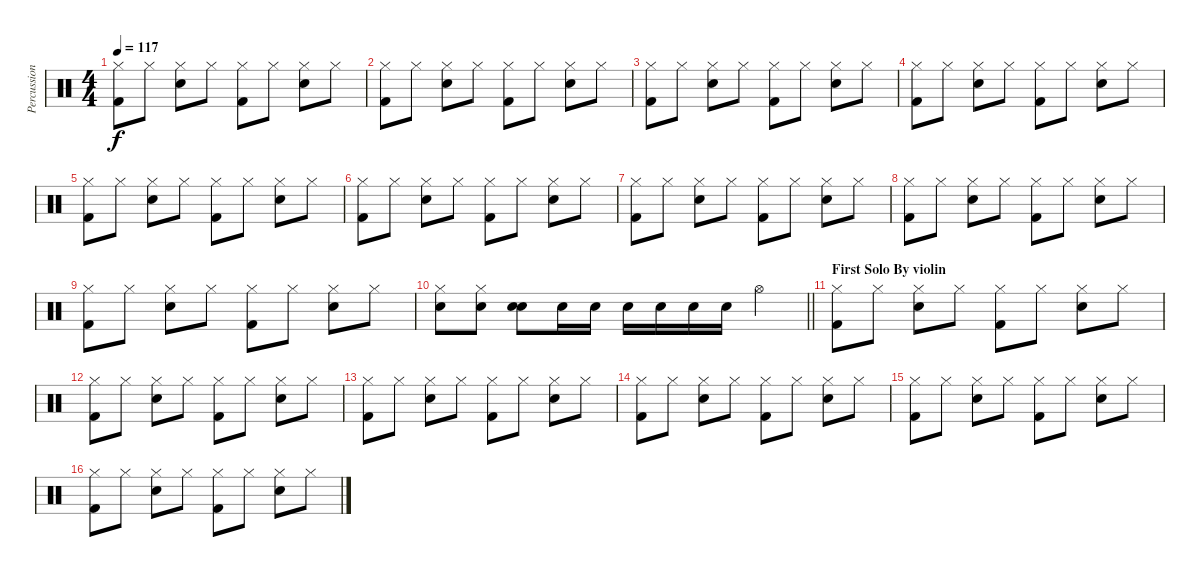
\track ("Percussion" "Percussion") {instrument percussion}
\staff {score}
\articulation defaults
\ts (4 4)
\tempo 117
\clef neutral
\ks c
("Kick (hit) 2" "Hi-Hat (closed)").8{dy f} "Hi-Hat (closed)".8 ("Hi-Hat (closed)" "Snare (hit) 2").8 "Hi-Hat (closed)".8 ("Kick (hit) 2" "Hi-Hat (closed)").8 "Hi-Hat (closed)".8 ("Hi-Hat (closed)" "Snare (hit) 2").8 "Hi-Hat (closed)".8 |
("Kick (hit) 2" "Hi-Hat (closed)").8 "Hi-Hat (closed)".8 ("Hi-Hat (closed)" "Snare (hit) 2").8 "Hi-Hat (closed)".8 ("Kick (hit) 2" "Hi-Hat (closed)").8 "Hi-Hat (closed)".8 ("Hi-Hat (closed)" "Snare (hit) 2").8 "Hi-Hat (closed)".8 |
("Kick (hit) 2" "Hi-Hat (closed)").8 "Hi-Hat (closed)".8 ("Hi-Hat (closed)" "Snare (hit) 2").8 "Hi-Hat (closed)".8 ("Kick (hit) 2" "Hi-Hat (closed)").8 "Hi-Hat (closed)".8 ("Hi-Hat (closed)" "Snare (hit) 2").8 "Hi-Hat (closed)".8 |
("Kick (hit) 2" "Hi-Hat (closed)").8 "Hi-Hat (closed)".8 ("Hi-Hat (closed)" "Snare (hit) 2").8 "Hi-Hat (closed)".8 ("Kick (hit) 2" "Hi-Hat (closed)").8 "Hi-Hat (closed)".8 ("Hi-Hat (closed)" "Snare (hit) 2").8 "Hi-Hat (closed)".8 |
("Kick (hit) 2" "Hi-Hat (closed)").8 "Hi-Hat (closed)".8 ("Hi-Hat (closed)" "Snare (hit) 2").8 "Hi-Hat (closed)".8 ("Kick (hit) 2" "Hi-Hat (closed)").8 "Hi-Hat (closed)".8 ("Hi-Hat (closed)" "Snare (hit) 2").8 "Hi-Hat (closed)".8 |
("Kick (hit) 2" "Hi-Hat (closed)").8 "Hi-Hat (closed)".8 ("Hi-Hat (closed)" "Snare (hit) 2").8 "Hi-Hat (closed)".8 ("Kick (hit) 2" "Hi-Hat (closed)").8 "Hi-Hat (closed)".8 ("Hi-Hat (closed)" "Snare (hit) 2").8 "Hi-Hat (closed)".8 |
("Kick (hit) 2" "Hi-Hat (closed)").8 "Hi-Hat (closed)".8 ("Hi-Hat (closed)" "Snare (hit) 2").8 "Hi-Hat (closed)".8 ("Kick (hit) 2" "Hi-Hat (closed)").8 "Hi-Hat (closed)".8 ("Hi-Hat (closed)" "Snare (hit) 2").8 "Hi-Hat (closed)".8 |
("Kick (hit) 2" "Hi-Hat (closed)").8 "Hi-Hat (closed)".8 ("Hi-Hat (closed)" "Snare (hit) 2").8 "Hi-Hat (closed)".8 ("Kick (hit) 2" "Hi-Hat (closed)").8 "Hi-Hat (closed)".8 ("Hi-Hat (closed)" "Snare (hit) 2").8 "Hi-Hat (closed)".8 |
("Kick (hit) 2" "Hi-Hat (closed)").8 "Hi-Hat (closed)".8 ("Hi-Hat (closed)" "Snare (hit) 2").8 "Hi-Hat (closed)".8 ("Kick (hit) 2" "Hi-Hat (closed)").8 "Hi-Hat (closed)".8 ("Hi-Hat (closed)" "Snare (hit) 2").8 "Hi-Hat (closed)".8 |
\barLineRight lightlight
("Snare (hit) 2" "Hi-Hat (closed)").8 ("Snare (hit) 2" "Hi-Hat (closed)").8 ("Snare (hit) 2" "Snare (hit) 2").8 "Snare (hit) 2".16 "Snare (hit) 2".16 "Snare (hit) 2".16 "Snare (hit) 2".16 "Snare (hit) 2".16 "Snare (hit) 2".16 "Hi-Hat (open)".4 |
\section ("" "First Solo By violin")
("Kick (hit) 2" "Hi-Hat (closed)").8 "Hi-Hat (closed)".8 ("Hi-Hat (closed)" "Snare (hit) 2").8 "Hi-Hat (closed)".8 ("Kick (hit) 2" "Hi-Hat (closed)").8 "Hi-Hat (closed)".8 ("Hi-Hat (closed)" "Snare (hit) 2").8 "Hi-Hat (closed)".8 |
("Kick (hit) 2" "Hi-Hat (closed)").8 "Hi-Hat (closed)".8 ("Hi-Hat (closed)" "Snare (hit) 2").8 "Hi-Hat (closed)".8 ("Kick (hit) 2" "Hi-Hat (closed)").8 "Hi-Hat (closed)".8 ("Hi-Hat (closed)" "Snare (hit) 2").8 "Hi-Hat (closed)".8 |
("Kick (hit) 2" "Hi-Hat (closed)").8 "Hi-Hat (closed)".8 ("Hi-Hat (closed)" "Snare (hit) 2").8 "Hi-Hat (closed)".8 ("Kick (hit) 2" "Hi-Hat (closed)").8 "Hi-Hat (closed)".8 ("Hi-Hat (closed)" "Snare (hit) 2").8 "Hi-Hat (closed)".8 |
("Kick (hit) 2" "Hi-Hat (closed)").8 "Hi-Hat (closed)".8 ("Hi-Hat (closed)" "Snare (hit) 2").8 "Hi-Hat (closed)".8 ("Kick (hit) 2" "Hi-Hat (closed)").8 "Hi-Hat (closed)".8 ("Hi-Hat (closed)" "Snare (hit) 2").8 "Hi-Hat (closed)".8 |
("Kick (hit) 2" "Hi-Hat (closed)").8 "Hi-Hat (closed)".8 ("Hi-Hat (closed)" "Snare (hit) 2").8 "Hi-Hat (closed)".8 ("Kick (hit) 2" "Hi-Hat (closed)").8 "Hi-Hat (closed)".8 ("Hi-Hat (closed)" "Snare (hit) 2").8 "Hi-Hat (closed)".8 |
("Kick (hit) 2" "Hi-Hat (closed)").8 "Hi-Hat (closed)".8 ("Hi-Hat (closed)" "Snare (hit) 2").8 "Hi-Hat (closed)".8 ("Kick (hit) 2" "Hi-Hat (closed)").8 "Hi-Hat (closed)".8 ("Hi-Hat (closed)" "Snare (hit) 2").8 "Hi-Hat (closed)".8
